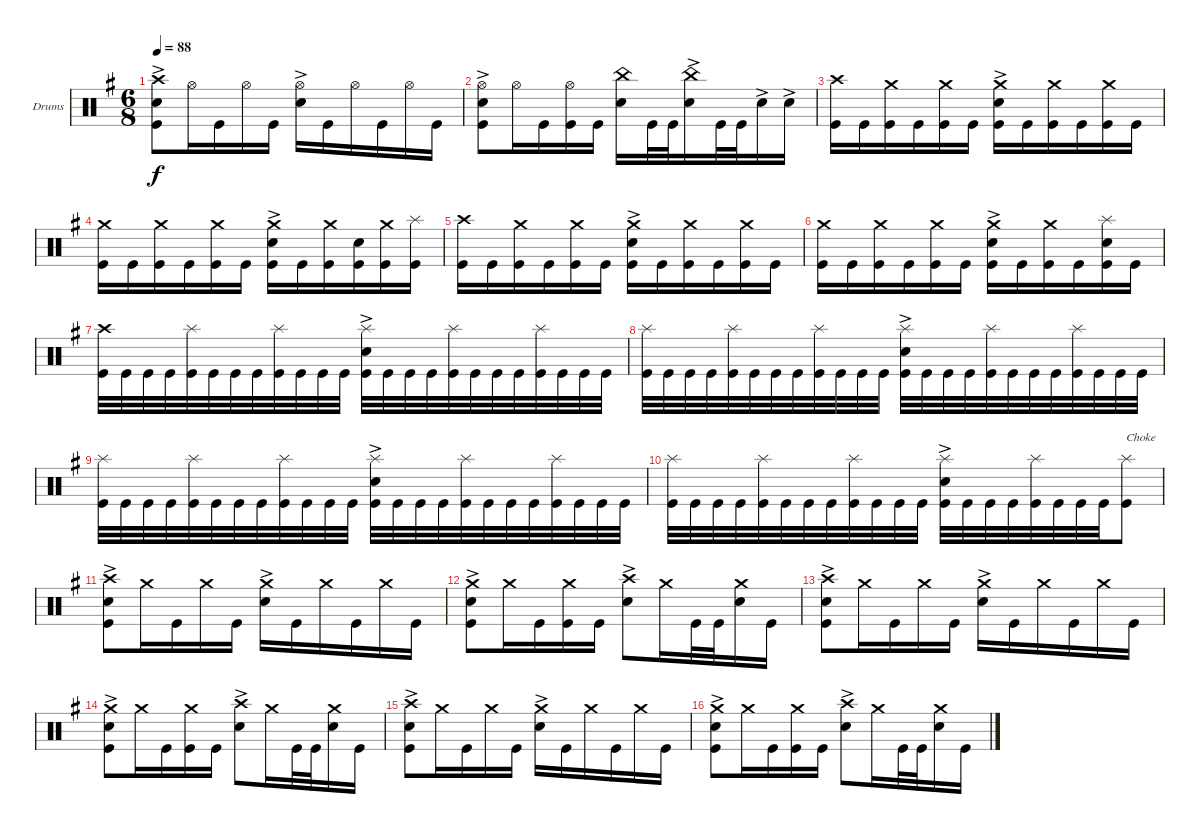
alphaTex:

\bracketExtendMode groupsimilarinstruments
\firstSystemTrackNameOrientation horizontal
\otherSystemsTrackNameOrientation horizontal
\track ("Drumkit" "Drums") {instrument percussion}
\staff {score}
\articulation defaults
\ts (6 8)
\tempo 88
\clef neutral
\ks eminor
("Crash high (hit)" "Kick (hit)" "Snare (hit) 2"{ac}).8{dy f} "Hi-Hat (open)".16 "Kick (hit)".16 "Hi-Hat (open)".16 "Kick (hit)".16 ("Snare (hit) 2"{ac} "Hi-Hat (open)").16 "Kick (hit)".16 "Hi-Hat (open)".16 "Kick (hit)".16 "Hi-Hat (open)".16 "Kick (hit)".16 |
("Kick (hit)" "Hi-Hat (open)" "Snare (hit) 2"{ac}).8 "Hi-Hat (open)".16 "Kick (hit)".16 ("Kick (hit)" "Hi-Hat (open)").16 "Kick (hit)".16 ("Snare (hit) 2" "China (hit)").16 "Kick (hit)".32 "Kick (hit)".32 ("Snare (hit) 2"{ac} "China (hit)").16 "Kick (hit)".32 "Kick (hit)".32 "Snare (hit) 2"{ac}.16 "Snare (hit) 2"{ac}.16 |
("Kick (hit)" "Crash high (hit)").16 "Kick (hit)".16 ("Kick (hit)" "Crash medium (hit)").16 "Kick (hit)".16 ("Kick (hit)" "Crash medium (hit)").16 "Kick (hit)".16 ("Kick (hit)" "Snare (hit) 2"{ac} "Crash medium (hit)").16 "Kick (hit)".16 ("Kick (hit)" "Crash medium (hit)").16 "Kick (hit)".16 ("Kick (hit)" "Crash medium (hit)").16 "Kick (hit)".16 |
("Kick (hit)" "Crash medium (hit)").16 "Kick (hit)".16 ("Kick (hit)" "Crash medium (hit)").16 "Kick (hit)".16 ("Kick (hit)" "Crash medium (hit)").16 "Kick (hit)".16 ("Kick (hit)" "Snare (hit) 2"{ac} "Crash medium (hit)").16 "Kick (hit)".16 ("Kick (hit)" "Crash medium (hit)").16 ("Kick (hit)" "Snare (hit) 2").16 ("Kick (hit)" "Crash medium (hit)").16 ("Kick (hit)" "Splash (hit)").16 |
("Kick (hit)" "Crash high (hit)").16 "Kick (hit)".16 ("Kick (hit)" "Crash medium (hit)").16 "Kick (hit)".16 ("Kick (hit)" "Crash medium (hit)").16 "Kick (hit)".16 ("Kick (hit)" "Snare (hit) 2"{ac} "Crash medium (hit)").16 "Kick (hit)".16 ("Kick (hit)" "Crash medium (hit)").16 "Kick (hit)".16 ("Kick (hit)" "Crash medium (hit)").16 "Kick (hit)".16 |
("Kick (hit)" "Crash medium (hit)").16 "Kick (hit)".16 ("Kick (hit)" "Crash medium (hit)").16 "Kick (hit)".16 ("Kick (hit)" "Crash medium (hit)").16 "Kick (hit)".16 ("Kick (hit)" "Snare (hit) 2"{ac} "Crash medium (hit)").16 "Kick (hit)".16 ("Kick (hit)" "Crash medium (hit)").16 "Kick (hit)".16 ("Kick (hit)" "Snare (hit) 2" "Splash (hit)").16 "Kick (hit)".16 |
("Kick (hit)" "Crash high (hit)").32 "Kick (hit)".32 "Kick (hit)".32 "Kick (hit)".32 ("Kick (hit)" "Splash (hit)").32 "Kick (hit)".32 "Kick (hit)".32 "Kick (hit)".32 ("Kick (hit)" "Splash (hit)").32 "Kick (hit)".32 "Kick (hit)".32 "Kick (hit)".32 ("Kick (hit)" "Splash (hit)" "Snare (hit) 2"{ac}).32 "Kick (hit)".32 "Kick (hit)".32 "Kick (hit)".32 ("Kick (hit)" "Splash (hit)").32 "Kick (hit)".32 "Kick (hit)".32 "Kick (hit)".32 ("Kick (hit)" "Splash (hit)").32 "Kick (hit)".32 "Kick (hit)".32 "Kick (hit)".32 |
("Kick (hit)" "Splash (hit)").32 "Kick (hit)".32 "Kick (hit)".32 "Kick (hit)".32 ("Kick (hit)" "Splash (hit)").32 "Kick (hit)".32 "Kick (hit)".32 "Kick (hit)".32 ("Kick (hit)" "Splash (hit)").32 "Kick (hit)".32 "Kick (hit)".32 "Kick (hit)".32 ("Kick (hit)" "Splash (hit)" "Snare (hit) 2"{ac}).32 "Kick (hit)".32 "Kick (hit)".32 "Kick (hit)".32 ("Kick (hit)" "Splash (hit)").32 "Kick (hit)".32 "Kick (hit)".32 "Kick (hit)".32 ("Kick (hit)" "Splash (hit)").32 "Kick (hit)".32 "Kick (hit)".32 "Kick (hit)".32 |
("Kick (hit)" "Splash (hit)").32 "Kick (hit)".32 "Kick (hit)".32 "Kick (hit)".32 ("Kick (hit)" "Splash (hit)").32 "Kick (hit)".32 "Kick (hit)".32 "Kick (hit)".32 ("Kick (hit)" "Splash (hit)").32 "Kick (hit)".32 "Kick (hit)".32 "Kick (hit)".32 ("Kick (hit)" "Splash (hit)" "Snare (hit) 2"{ac}).32 "Kick (hit)".32 "Kick (hit)".32 "Kick (hit)".32 ("Kick (hit)" "Splash (hit)").32 "Kick (hit)".32 "Kick (hit)".32 "Kick (hit)".32 ("Kick (hit)" "Splash (hit)").32 "Kick (hit)".32 "Kick (hit)".32 "Kick (hit)".32 |
("Kick (hit)" "Splash (hit)").32 "Kick (hit)".32 "Kick (hit)".32 "Kick (hit)".32 ("Kick (hit)" "Splash (hit)").32 "Kick (hit)".32 "Kick (hit)".32 "Kick (hit)".32 ("Kick (hit)" "Splash (hit)").32 "Kick (hit)".32 "Kick (hit)".32 "Kick (hit)".32 ("Kick (hit)" "Splash (hit)" "Snare (hit) 2"{ac}).32 "Kick (hit)".32 "Kick (hit)".32 "Kick (hit)".32 ("Kick (hit)" "Splash (hit)").32 "Kick (hit)".32 "Kick (hit)".32 "Kick (hit)".32 ("Kick (hit)" "Splash (hit)").8{txt "Choke"} |
("Crash high (hit)" "Kick (hit)" "Snare (hit) 2"{ac}).8 "Crash medium (hit)".16 "Kick (hit)".16 "Crash medium (hit)".16 "Kick (hit)".16 ("Snare (hit) 2"{ac} "Crash medium (hit)").16 "Kick (hit)".16 "Crash medium (hit)".16 "Kick (hit)".16 "Crash medium (hit)".16 "Kick (hit)".16 |
("Kick (hit)" "Crash medium (hit)" "Snare (hit) 2"{ac}).8 "Crash medium (hit)".16 "Kick (hit)".16 ("Kick (hit)" "Crash medium (hit)").16 "Kick (hit)".16 ("Crash high (hit)" "Snare (hit) 2"{ac}).8 "Crash medium (hit)".16 "Kick (hit)".32 "Kick (hit)".32 ("Snare (hit) 2" "Crash medium (hit)").16 "Kick (hit)".16 |
("Crash high (hit)" "Kick (hit)" "Snare (hit) 2"{ac}).8 "Crash medium (hit)".16 "Kick (hit)".16 "Crash medium (hit)".16 "Kick (hit)".16 ("Snare (hit) 2"{ac} "Crash medium (hit)").16 "Kick (hit)".16 "Crash medium (hit)".16 "Kick (hit)".16 "Crash medium (hit)".16 "Kick (hit)".16 |
("Kick (hit)" "Crash medium (hit)" "Snare (hit) 2"{ac}).8 "Crash medium (hit)".16 "Kick (hit)".16 ("Kick (hit)" "Crash medium (hit)").16 "Kick (hit)".16 ("Crash high (hit)" "Snare (hit) 2"{ac}).8 "Crash medium (hit)".16 "Kick (hit)".32 "Kick (hit)".32 ("Snare (hit) 2" "Crash medium (hit)").16 "Kick (hit)".16 |
("Crash high (hit)" "Kick (hit)" "Snare (hit) 2"{ac}).8 "Crash medium (hit)".16 "Kick (hit)".16 "Crash medium (hit)".16 "Kick (hit)".16 ("Snare (hit) 2"{ac} "Crash medium (hit)").16 "Kick (hit)".16 "Crash medium (hit)".16 "Kick (hit)".16 "Crash medium (hit)".16 "Kick (hit)".16 |
("Kick (hit)" "Crash medium (hit)" "Snare (hit) 2"{ac}).8 "Crash medium (hit)".16 "Kick (hit)".16 ("Kick (hit)" "Crash medium (hit)").16 "Kick (hit)".16 ("Crash high (hit)" "Snare (hit) 2"{ac}).8 "Crash medium (hit)".16 "Kick (hit)".32 "Kick (hit)".32 ("Snare (hit) 2" "Crash medium (hit)").16 "Kick (hit)".16
